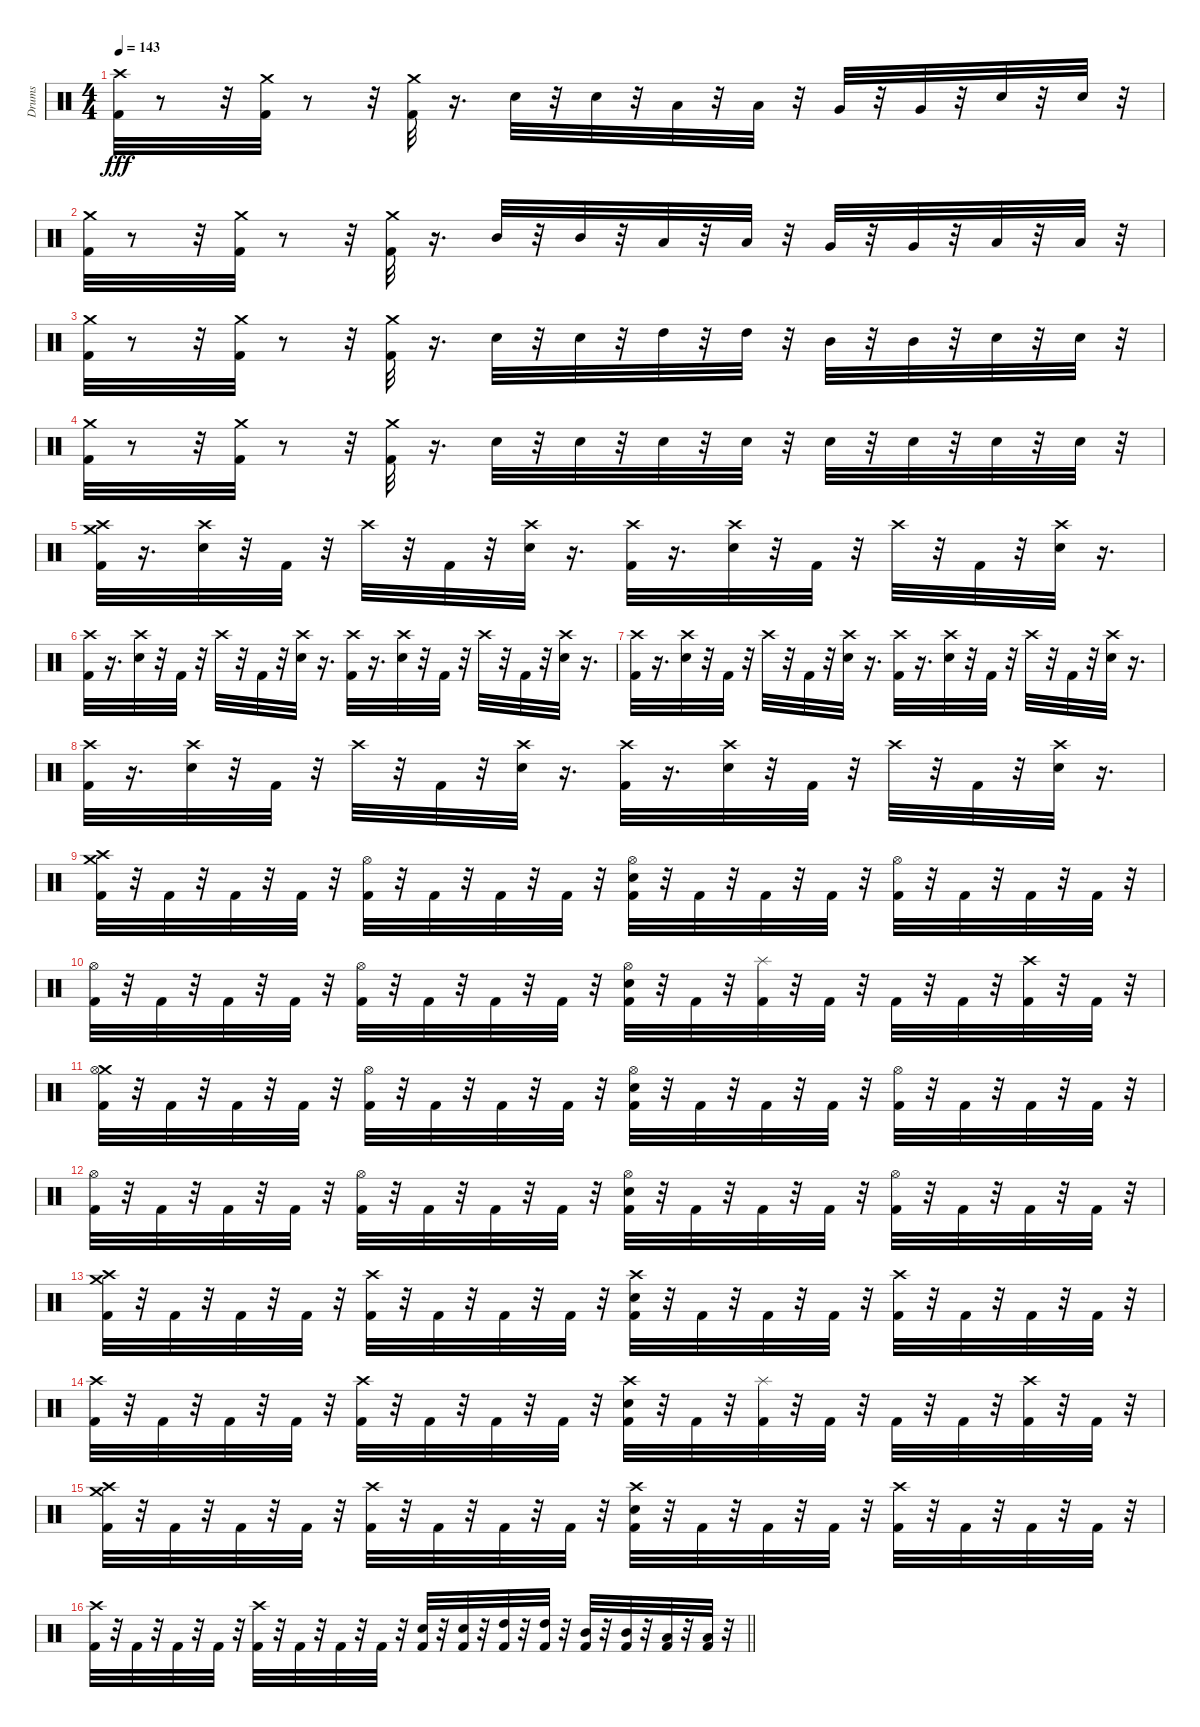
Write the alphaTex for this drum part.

\track ("Drums" "Drums") {instrument percussion}
\staff {score}
\articulation defaults
\ts (4 4)
\tempo 143
\clef neutral
\ks c
("Crash high (hit)" "Kick (hit) 2").32{dy fff} r.8 r.32 ("Crash medium (hit)" "Kick (hit) 2").32 r.8 r.32 ("Crash medium (hit)" "Kick (hit) 2").32 r.16{d} "Snare (hit) 2".32 r.32 "Snare (hit) 2".32 r.32 "Low Tom (hit)".32 r.32 "Low Tom (hit)".32 r.32 "Very Low Tom (hit)".32 r.32 "Very Low Tom (hit)".32 r.32 "Snare (hit) 2".32 r.32 "Snare (hit) 2".32 r.32 |
("Crash medium (hit)" "Kick (hit) 2").32 r.8 r.32 ("Crash medium (hit)" "Kick (hit) 2").32 r.8 r.32 ("Crash medium (hit)" "Kick (hit) 2").32 r.16{d} "Mid Tom (hit)".32 r.32 "Mid Tom (hit)".32 r.32 "Low Tom (hit)".32 r.32 "Low Tom (hit)".32 r.32 "Very Low Tom (hit)".32 r.32 "Very Low Tom (hit)".32 r.32 "Low Floor Tom (hit)".32 r.32 "Low Floor Tom (hit)".32 r.32 |
("Crash medium (hit)" "Kick (hit) 2").32 r.8 r.32 ("Crash medium (hit)" "Kick (hit) 2").32 r.8 r.32 ("Crash medium (hit)" "Kick (hit) 2").32 r.16{d} "Snare (hit) 2".32 r.32 "Snare (hit) 2".32 r.32 "High Tom (hit)".32 r.32 "High Tom (hit)".32 r.32 "Mid Tom (hit)".32 r.32 "Mid Tom (hit)".32 r.32 "Snare (hit) 2".32 r.32 "Snare (hit) 2".32 r.32 |
("Crash medium (hit)" "Kick (hit) 2").32 r.8 r.32 ("Crash medium (hit)" "Kick (hit) 2").32 r.8 r.32 ("Crash medium (hit)" "Kick (hit) 2").32 r.16{d} "Snare (hit) 2".32 r.32 "Snare (hit) 2".32 r.32 "Snare (hit) 2".32 r.32 "Snare (hit) 2".32 r.32 "Snare (hit) 2".32 r.32 "Snare (hit) 2".32 r.32 "Snare (hit) 2".32 r.32 "Snare (hit) 2".32 r.32 |
("Crash medium (hit)" "Crash high (hit)" "Kick (hit) 2").32 r.16{d} ("Crash high (hit)" "Snare (hit) 2").32 r.32 "Kick (hit) 2".32 r.32 "Crash high (hit)".32 r.32 "Kick (hit) 2".32 r.32 ("Crash high (hit)" "Snare (hit) 2").32 r.16{d} ("Crash high (hit)" "Kick (hit) 2").32 r.16{d} ("Crash high (hit)" "Snare (hit) 2").32 r.32 "Kick (hit) 2".32 r.32 "Crash high (hit)".32 r.32 "Kick (hit) 2".32 r.32 ("Crash high (hit)" "Snare (hit) 2").32 r.16{d} |
("Crash high (hit)" "Kick (hit) 2").32 r.16{d} ("Crash high (hit)" "Snare (hit) 2").32 r.32 "Kick (hit) 2".32 r.32 "Crash high (hit)".32 r.32 "Kick (hit) 2".32 r.32 ("Crash high (hit)" "Snare (hit) 2").32 r.16{d} ("Crash high (hit)" "Kick (hit) 2").32 r.16{d} ("Crash high (hit)" "Snare (hit) 2").32 r.32 "Kick (hit) 2".32 r.32 "Crash high (hit)".32 r.32 "Kick (hit) 2".32 r.32 ("Crash high (hit)" "Snare (hit) 2").32 r.16{d} |
("Crash high (hit)" "Kick (hit) 2").32 r.16{d} ("Crash high (hit)" "Snare (hit) 2").32 r.32 "Kick (hit) 2".32 r.32 "Crash high (hit)".32 r.32 "Kick (hit) 2".32 r.32 ("Crash high (hit)" "Snare (hit) 2").32 r.16{d} ("Crash high (hit)" "Kick (hit) 2").32 r.16{d} ("Crash high (hit)" "Snare (hit) 2").32 r.32 "Kick (hit) 2".32 r.32 "Crash high (hit)".32 r.32 "Kick (hit) 2".32 r.32 ("Crash high (hit)" "Snare (hit) 2").32 r.16{d} |
("Crash high (hit)" "Kick (hit) 2").32 r.16{d} ("Crash high (hit)" "Snare (hit) 2").32 r.32 "Kick (hit) 2".32 r.32 "Crash high (hit)".32 r.32 "Kick (hit) 2".32 r.32 ("Crash high (hit)" "Snare (hit) 2").32 r.16{d} ("Crash high (hit)" "Kick (hit) 2").32 r.16{d} ("Crash high (hit)" "Snare (hit) 2").32 r.32 "Kick (hit) 2".32 r.32 "Crash high (hit)".32 r.32 "Kick (hit) 2".32 r.32 ("Crash high (hit)" "Snare (hit) 2").32 r.16{d} |
("Crash medium (hit)" "Crash high (hit)" "Kick (hit) 2").32 r.32 "Kick (hit) 2".32 r.32 "Kick (hit) 2".32 r.32 "Kick (hit) 2".32 r.32 ("Kick (hit) 2" "Hi-Hat (open)").32 r.32 "Kick (hit) 2".32 r.32 "Kick (hit) 2".32 r.32 "Kick (hit) 2".32 r.32 ("Snare (hit) 2" "Hi-Hat (open)" "Kick (hit) 2").32 r.32 "Kick (hit) 2".32 r.32 "Kick (hit) 2".32 r.32 "Kick (hit) 2".32 r.32 ("Kick (hit) 2" "Hi-Hat (open)").32 r.32 "Kick (hit) 2".32 r.32 "Kick (hit) 2".32 r.32 "Kick (hit) 2".32 r.32 |
("Hi-Hat (open)" "Kick (hit) 2").32 r.32 "Kick (hit) 2".32 r.32 "Kick (hit) 2".32 r.32 "Kick (hit) 2".32 r.32 ("Kick (hit) 2" "Hi-Hat (open)").32 r.32 "Kick (hit) 2".32 r.32 "Kick (hit) 2".32 r.32 "Kick (hit) 2".32 r.32 ("Snare (hit) 2" "Hi-Hat (open)" "Kick (hit) 2").32 r.32 "Kick (hit) 2".32 r.32 ("Splash (hit)" "Kick (hit) 2").32 r.32 "Kick (hit) 2".32 r.32 "Kick (hit) 2".32 r.32 "Kick (hit) 2".32 r.32 ("Crash high (hit)" "Kick (hit) 2").32 r.32 "Kick (hit) 2".32 r.32 |
("Crash medium (hit)" "Hi-Hat (open)" "Kick (hit) 2").32 r.32 "Kick (hit) 2".32 r.32 "Kick (hit) 2".32 r.32 "Kick (hit) 2".32 r.32 ("Kick (hit) 2" "Hi-Hat (open)").32 r.32 "Kick (hit) 2".32 r.32 "Kick (hit) 2".32 r.32 "Kick (hit) 2".32 r.32 ("Snare (hit) 2" "Hi-Hat (open)" "Kick (hit) 2").32 r.32 "Kick (hit) 2".32 r.32 "Kick (hit) 2".32 r.32 "Kick (hit) 2".32 r.32 ("Kick (hit) 2" "Hi-Hat (open)").32 r.32 "Kick (hit) 2".32 r.32 "Kick (hit) 2".32 r.32 "Kick (hit) 2".32 r.32 |
("Hi-Hat (open)" "Kick (hit) 2").32 r.32 "Kick (hit) 2".32 r.32 "Kick (hit) 2".32 r.32 "Kick (hit) 2".32 r.32 ("Kick (hit) 2" "Hi-Hat (open)").32 r.32 "Kick (hit) 2".32 r.32 "Kick (hit) 2".32 r.32 "Kick (hit) 2".32 r.32 ("Snare (hit) 2" "Hi-Hat (open)" "Kick (hit) 2").32 r.32 "Kick (hit) 2".32 r.32 "Kick (hit) 2".32 r.32 "Kick (hit) 2".32 r.32 ("Kick (hit) 2" "Hi-Hat (open)").32 r.32 "Kick (hit) 2".32 r.32 "Kick (hit) 2".32 r.32 "Kick (hit) 2".32 r.32 |
("Crash medium (hit)" "Crash high (hit)" "Kick (hit) 2").32 r.32 "Kick (hit) 2".32 r.32 "Kick (hit) 2".32 r.32 "Kick (hit) 2".32 r.32 ("Crash high (hit)" "Kick (hit) 2").32 r.32 "Kick (hit) 2".32 r.32 "Kick (hit) 2".32 r.32 "Kick (hit) 2".32 r.32 ("Crash high (hit)" "Snare (hit) 2" "Kick (hit) 2").32 r.32 "Kick (hit) 2".32 r.32 "Kick (hit) 2".32 r.32 "Kick (hit) 2".32 r.32 ("Crash high (hit)" "Kick (hit) 2").32 r.32 "Kick (hit) 2".32 r.32 "Kick (hit) 2".32 r.32 "Kick (hit) 2".32 r.32 |
("Crash high (hit)" "Kick (hit) 2").32 r.32 "Kick (hit) 2".32 r.32 "Kick (hit) 2".32 r.32 "Kick (hit) 2".32 r.32 ("Crash high (hit)" "Kick (hit) 2").32 r.32 "Kick (hit) 2".32 r.32 "Kick (hit) 2".32 r.32 "Kick (hit) 2".32 r.32 ("Crash high (hit)" "Snare (hit) 2" "Kick (hit) 2").32 r.32 "Kick (hit) 2".32 r.32 ("Splash (hit)" "Kick (hit) 2").32 r.32 "Kick (hit) 2".32 r.32 "Kick (hit) 2".32 r.32 "Kick (hit) 2".32 r.32 ("Crash high (hit)" "Kick (hit) 2").32 r.32 "Kick (hit) 2".32 r.32 |
("Crash high (hit)" "Crash medium (hit)" "Kick (hit) 2").32 r.32 "Kick (hit) 2".32 r.32 "Kick (hit) 2".32 r.32 "Kick (hit) 2".32 r.32 ("Crash high (hit)" "Kick (hit) 2").32 r.32 "Kick (hit) 2".32 r.32 "Kick (hit) 2".32 r.32 "Kick (hit) 2".32 r.32 ("Crash high (hit)" "Snare (hit) 2" "Kick (hit) 2").32 r.32 "Kick (hit) 2".32 r.32 "Kick (hit) 2".32 r.32 "Kick (hit) 2".32 r.32 ("Crash high (hit)" "Kick (hit) 2").32 r.32 "Kick (hit) 2".32 r.32 "Kick (hit) 2".32 r.32 "Kick (hit) 2".32 r.32 |
\barLineRight lightlight
("Crash high (hit)" "Kick (hit) 2").32 r.32 "Kick (hit) 2".32 r.32 "Kick (hit) 2".32 r.32 "Kick (hit) 2".32 r.32 ("Crash high (hit)" "Kick (hit) 2").32 r.32 "Kick (hit) 2".32 r.32 "Kick (hit) 2".32 r.32 "Kick (hit) 2".32 r.32 ("Snare (hit) 2" "Kick (hit) 2").32 r.32 ("Snare (hit) 2" "Kick (hit) 2").32 r.32 ("High Tom (hit)" "Kick (hit) 2").32 r.32 ("High Tom (hit)" "Kick (hit) 2").32 r.32 ("Mid Tom (hit)" "Kick (hit) 2").32 r.32 ("Mid Tom (hit)" "Kick (hit) 2").32 r.32 ("Low Tom (hit)" "Kick (hit) 2").32 r.32 ("Low Tom (hit)" "Kick (hit) 2").32 r.32
